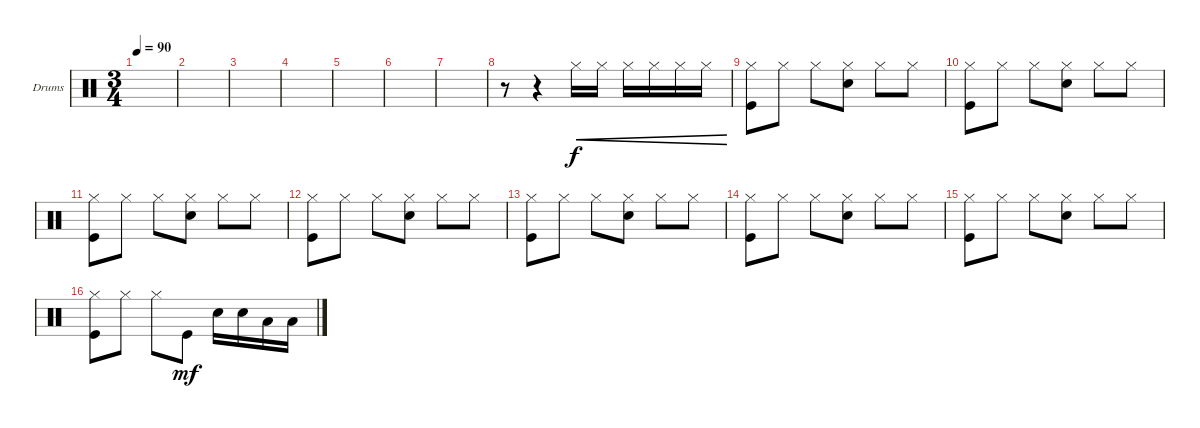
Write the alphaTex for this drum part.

\defaultSystemsLayout 4
\bracketExtendMode groupsimilarinstruments
\firstSystemTrackNameOrientation horizontal
\otherSystemsTrackNameOrientation horizontal
\track ("Саня" "Drums") {instrument percussion}
\staff {score}
\articulation defaults
\ts (3 4)
\tempo 90
\clef neutral
\scale
0.538462
\ks c
|
\scale
0.230769 |
\scale
0.230769 |
\scale
0.333333 |
\scale
0.333333 |
\scale
0.333333 |
\scale
0.333333 |
\scale
0.333333 r.8 r.4 "Hi-Hat (closed)".16{cre} "Hi-Hat (closed)".16{cre} "Hi-Hat (closed)".16{cre} "Hi-Hat (closed)".16{cre} "Hi-Hat (closed)".16{cre} "Hi-Hat (closed)".16{cre} |
\scale
0.333333 ("Kick (hit)" "Hi-Hat (closed)").8{dy f} "Hi-Hat (closed)".8 "Hi-Hat (closed)".8 ("Snare (hit) 2" "Hi-Hat (closed)").8 "Hi-Hat (closed)".8 "Hi-Hat (closed)".8 |
\scale
0.333333 ("Kick (hit)" "Hi-Hat (closed)").8 "Hi-Hat (closed)".8 "Hi-Hat (closed)".8 ("Snare (hit) 2" "Hi-Hat (closed)").8 "Hi-Hat (closed)".8 "Hi-Hat (closed)".8 |
\scale
0.333333 ("Kick (hit)" "Hi-Hat (closed)").8 "Hi-Hat (closed)".8 "Hi-Hat (closed)".8 ("Snare (hit) 2" "Hi-Hat (closed)").8 "Hi-Hat (closed)".8 "Hi-Hat (closed)".8 |
\scale
0.333333 ("Kick (hit)" "Hi-Hat (closed)").8 "Hi-Hat (closed)".8 "Hi-Hat (closed)".8 ("Snare (hit) 2" "Hi-Hat (closed)").8 "Hi-Hat (closed)".8 "Hi-Hat (closed)".8 |
("Kick (hit)" "Hi-Hat (closed)").8 "Hi-Hat (closed)".8 "Hi-Hat (closed)".8 ("Snare (hit) 2" "Hi-Hat (closed)").8 "Hi-Hat (closed)".8 "Hi-Hat (closed)".8 |
("Kick (hit)" "Hi-Hat (closed)").8 "Hi-Hat (closed)".8 "Hi-Hat (closed)".8 ("Snare (hit) 2" "Hi-Hat (closed)").8 "Hi-Hat (closed)".8 "Hi-Hat (closed)".8 |
("Kick (hit)" "Hi-Hat (closed)").8 "Hi-Hat (closed)".8 "Hi-Hat (closed)".8 ("Snare (hit) 2" "Hi-Hat (closed)").8 "Hi-Hat (closed)".8 "Hi-Hat (closed)".8 |
("Kick (hit)" "Hi-Hat (closed)").8 "Hi-Hat (closed)".8 "Hi-Hat (closed)".8 "Kick (hit)".8{dy mf} "Snare (hit) 2".16 "Snare (hit) 2".16 "Low Tom (hit)".16 "Low Tom (hit)".16
